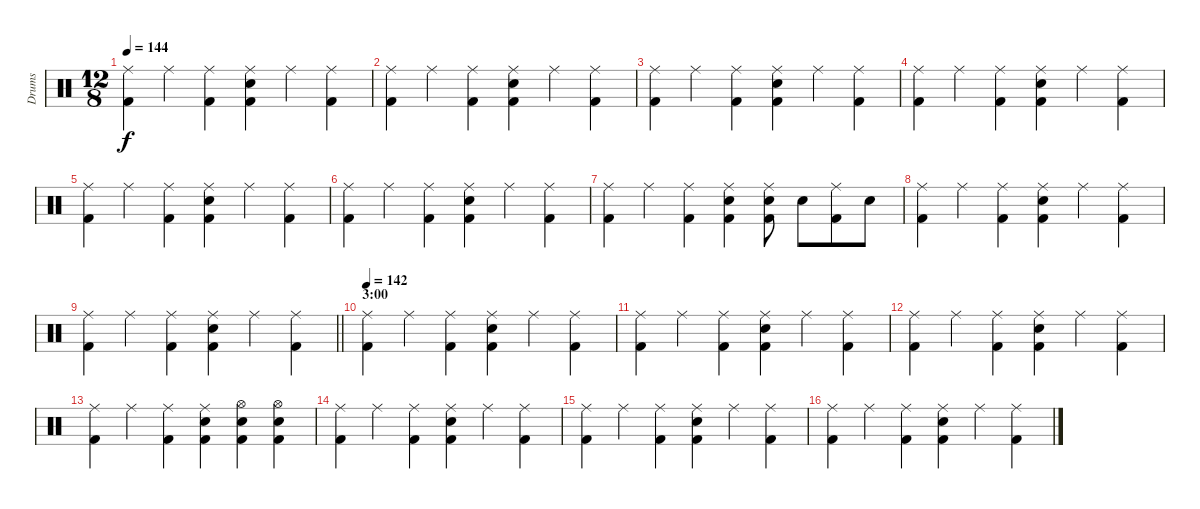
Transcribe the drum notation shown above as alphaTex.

\track ("Drums" "Drums") {instrument percussion}
\staff {score}
\articulation defaults
\ts (12 8)
\tempo 144
\clef neutral
\ks c
("Ride (middle)" "Kick (hit) 2").4{dy f} "Ride (middle)".4 ("Ride (middle)" "Kick (hit) 2").4 ("Ride (middle)" "Snare (hit) 2" "Kick (hit) 2").4 "Ride (middle)".4 ("Ride (middle)" "Kick (hit) 2").4 |
("Ride (middle)" "Kick (hit) 2").4 "Ride (middle)".4 ("Ride (middle)" "Kick (hit) 2").4 ("Ride (middle)" "Snare (hit) 2" "Kick (hit) 2").4 "Ride (middle)".4 ("Ride (middle)" "Kick (hit) 2").4 |
("Ride (middle)" "Kick (hit) 2").4 "Ride (middle)".4 ("Ride (middle)" "Kick (hit) 2").4 ("Ride (middle)" "Snare (hit) 2" "Kick (hit) 2").4 "Ride (middle)".4 ("Ride (middle)" "Kick (hit) 2").4 |
("Ride (middle)" "Kick (hit) 2").4 "Ride (middle)".4 ("Ride (middle)" "Kick (hit) 2").4 ("Ride (middle)" "Snare (hit) 2" "Kick (hit) 2").4 "Ride (middle)".4 ("Ride (middle)" "Kick (hit) 2").4 |
("Ride (middle)" "Kick (hit) 2").4 "Ride (middle)".4 ("Ride (middle)" "Kick (hit) 2").4 ("Ride (middle)" "Snare (hit) 2" "Kick (hit) 2").4 "Ride (middle)".4 ("Ride (middle)" "Kick (hit) 2").4 |
("Ride (middle)" "Kick (hit) 2").4 "Ride (middle)".4 ("Ride (middle)" "Kick (hit) 2").4 ("Ride (middle)" "Snare (hit) 2" "Kick (hit) 2").4 "Ride (middle)".4 ("Ride (middle)" "Kick (hit) 2").4 |
("Ride (middle)" "Kick (hit) 2").4 "Ride (middle)".4 ("Ride (middle)" "Kick (hit) 2").4 ("Ride (middle)" "Snare (hit) 2" "Kick (hit) 2").4 ("Ride (middle)" "Snare (hit) 2" "Kick (hit) 2").8 "Snare (hit) 2".8 ("Ride (middle)" "Kick (hit) 2").8 "Snare (hit) 2".8 |
("Ride (middle)" "Kick (hit) 2").4 "Ride (middle)".4 ("Ride (middle)" "Kick (hit) 2").4 ("Ride (middle)" "Snare (hit) 2" "Kick (hit) 2").4 "Ride (middle)".4 ("Ride (middle)" "Kick (hit) 2").4 |
\barLineRight lightlight
("Ride (middle)" "Kick (hit) 2").4 "Ride (middle)".4 ("Ride (middle)" "Kick (hit) 2").4 ("Ride (middle)" "Snare (hit) 2" "Kick (hit) 2").4 "Ride (middle)".4 ("Ride (middle)" "Kick (hit) 2").4 |
\section ("" "3:00")
\tempo 142
("Ride (middle)" "Kick (hit) 2").4 "Ride (middle)".4 ("Ride (middle)" "Kick (hit) 2").4 ("Ride (middle)" "Snare (hit) 2" "Kick (hit) 2").4 "Ride (middle)".4 ("Ride (middle)" "Kick (hit) 2").4 |
("Ride (middle)" "Kick (hit) 2").4 "Ride (middle)".4 ("Ride (middle)" "Kick (hit) 2").4 ("Ride (middle)" "Snare (hit) 2" "Kick (hit) 2").4 "Ride (middle)".4 ("Ride (middle)" "Kick (hit) 2").4 |
("Ride (middle)" "Kick (hit) 2").4 "Ride (middle)".4 ("Ride (middle)" "Kick (hit) 2").4 ("Ride (middle)" "Snare (hit) 2" "Kick (hit) 2").4 "Ride (middle)".4 ("Ride (middle)" "Kick (hit) 2").4 |
("Ride (middle)" "Kick (hit) 2").4 "Ride (middle)".4 ("Ride (middle)" "Kick (hit) 2").4 ("Ride (middle)" "Snare (hit) 2" "Kick (hit) 2").4 ("Hi-Hat (open)" "Snare (hit) 2" "Kick (hit) 2").4 ("Hi-Hat (open)" "Snare (hit) 2" "Kick (hit) 2").4 |
("Ride (middle)" "Kick (hit) 2").4 "Ride (middle)".4 ("Ride (middle)" "Kick (hit) 2").4 ("Ride (middle)" "Snare (hit) 2" "Kick (hit) 2").4 "Ride (middle)".4 ("Ride (middle)" "Kick (hit) 2").4 |
("Ride (middle)" "Kick (hit) 2").4 "Ride (middle)".4 ("Ride (middle)" "Kick (hit) 2").4 ("Ride (middle)" "Snare (hit) 2" "Kick (hit) 2").4 "Ride (middle)".4 ("Ride (middle)" "Kick (hit) 2").4 |
("Ride (middle)" "Kick (hit) 2").4 "Ride (middle)".4 ("Ride (middle)" "Kick (hit) 2").4 ("Ride (middle)" "Snare (hit) 2" "Kick (hit) 2").4 "Ride (middle)".4 ("Ride (middle)" "Kick (hit) 2").4
